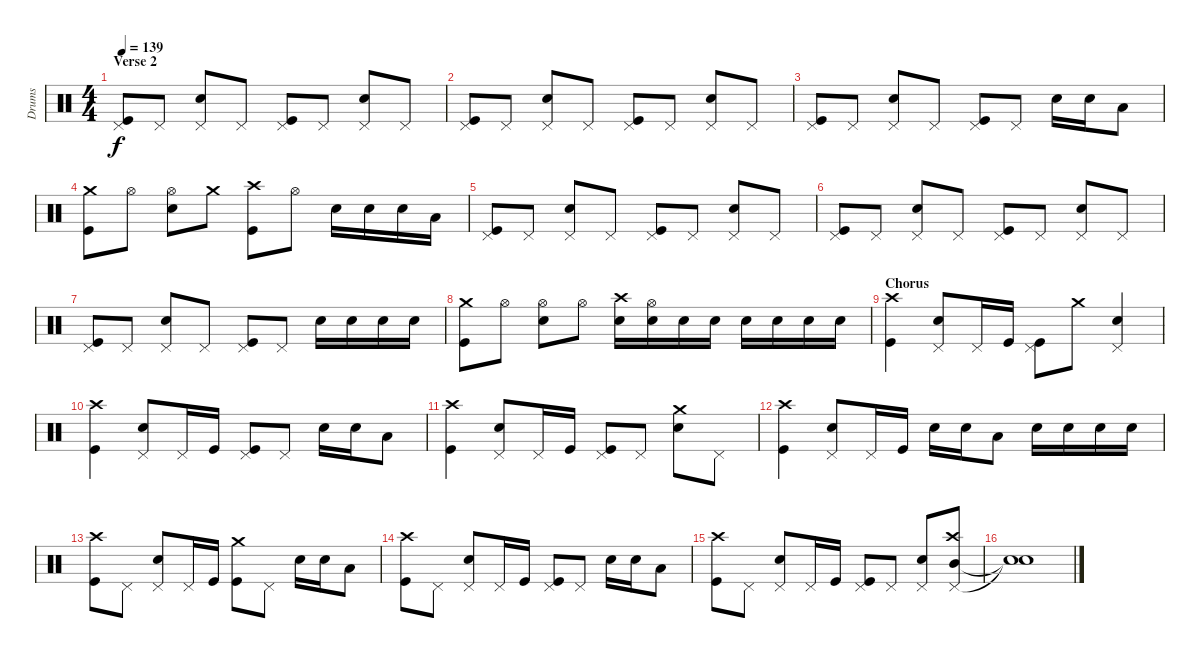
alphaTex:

\track ("Drums" "Drums") {instrument percussion}
\staff {score}
\articulation defaults
\ts (4 4)
\section ("" "Verse 2")
\tempo 139
\clef neutral
\ks c
("Pedal Hi-Hat (hit)" "Kick (hit)").8{dy f} "Pedal Hi-Hat (hit)".8 ("Pedal Hi-Hat (hit)" "Electric Snare (hit)").8 "Pedal Hi-Hat (hit)".8 ("Pedal Hi-Hat (hit)" "Kick (hit)").8 "Pedal Hi-Hat (hit)".8 ("Pedal Hi-Hat (hit)" "Electric Snare (hit)").8 "Pedal Hi-Hat (hit)".8 |
("Pedal Hi-Hat (hit)" "Kick (hit)").8 "Pedal Hi-Hat (hit)".8 ("Pedal Hi-Hat (hit)" "Electric Snare (hit)").8 "Pedal Hi-Hat (hit)".8 ("Pedal Hi-Hat (hit)" "Kick (hit)").8 "Pedal Hi-Hat (hit)".8 ("Pedal Hi-Hat (hit)" "Electric Snare (hit)").8 "Pedal Hi-Hat (hit)".8 |
("Pedal Hi-Hat (hit)" "Kick (hit)").8 "Pedal Hi-Hat (hit)".8 ("Pedal Hi-Hat (hit)" "Electric Snare (hit)").8 "Pedal Hi-Hat (hit)".8 ("Pedal Hi-Hat (hit)" "Kick (hit)").8 "Pedal Hi-Hat (hit)".8 "Electric Snare (hit)".16 "Electric Snare (hit)".16 "Low Tom (hit)".8 |
("Crash medium (hit)" "Kick (hit)").8 "Hi-Hat (open)".8 ("Hi-Hat (open)" "Electric Snare (hit)").8 "Crash medium (hit)".8 ("Crash high (hit)" "Kick (hit)").8 "Hi-Hat (open)".8 "Electric Snare (hit)".16 "Electric Snare (hit)".16 "Electric Snare (hit)".16 "Low Tom (hit)".16 |
("Pedal Hi-Hat (hit)" "Kick (hit)").8 "Pedal Hi-Hat (hit)".8 ("Pedal Hi-Hat (hit)" "Electric Snare (hit)").8 "Pedal Hi-Hat (hit)".8 ("Pedal Hi-Hat (hit)" "Kick (hit)").8 "Pedal Hi-Hat (hit)".8 ("Pedal Hi-Hat (hit)" "Electric Snare (hit)").8 "Pedal Hi-Hat (hit)".8 |
("Pedal Hi-Hat (hit)" "Kick (hit)").8 "Pedal Hi-Hat (hit)".8 ("Pedal Hi-Hat (hit)" "Electric Snare (hit)").8 "Pedal Hi-Hat (hit)".8 ("Pedal Hi-Hat (hit)" "Kick (hit)").8 "Pedal Hi-Hat (hit)".8 ("Pedal Hi-Hat (hit)" "Electric Snare (hit)").8 "Pedal Hi-Hat (hit)".8 |
("Pedal Hi-Hat (hit)" "Kick (hit)").8 "Pedal Hi-Hat (hit)".8 ("Pedal Hi-Hat (hit)" "Electric Snare (hit)").8 "Pedal Hi-Hat (hit)".8 ("Pedal Hi-Hat (hit)" "Kick (hit)").8 "Pedal Hi-Hat (hit)".8 "Electric Snare (hit)".16 "Electric Snare (hit)".16 "Electric Snare (hit)".16 "Electric Snare (hit)".16 |
("Crash medium (hit)" "Kick (hit)").8 "Hi-Hat (open)".8 ("Hi-Hat (open)" "Electric Snare (hit)").8 "Hi-Hat (open)".8 ("Crash high (hit)" "Electric Snare (hit)").16 ("Hi-Hat (open)" "Electric Snare (hit)").16 "Electric Snare (hit)".16 "Electric Snare (hit)".16 "Electric Snare (hit)".16 "Electric Snare (hit)".16 "Electric Snare (hit)".16 "Electric Snare (hit)".16 |
\section ("" "Chorus")
("Crash high (hit)" "Kick (hit)").4 ("Pedal Hi-Hat (hit)" "Electric Snare (hit)").8 "Pedal Hi-Hat (hit)".16 "Kick (hit)".16 ("Pedal Hi-Hat (hit)" "Kick (hit)").8 "Crash medium (hit)".8 ("Pedal Hi-Hat (hit)" "Electric Snare (hit)").4 |
("Crash high (hit)" "Kick (hit)").4 ("Pedal Hi-Hat (hit)" "Electric Snare (hit)").8 "Pedal Hi-Hat (hit)".16 "Kick (hit)".16 ("Pedal Hi-Hat (hit)" "Kick (hit)").8 "Pedal Hi-Hat (hit)".8 "Electric Snare (hit)".16 "Electric Snare (hit)".16 "Low Tom (hit)".8 |
("Crash high (hit)" "Kick (hit)").4 ("Pedal Hi-Hat (hit)" "Electric Snare (hit)").8 "Pedal Hi-Hat (hit)".16 "Kick (hit)".16 ("Pedal Hi-Hat (hit)" "Kick (hit)").8 "Pedal Hi-Hat (hit)".8 ("Crash medium (hit)" "Electric Snare (hit)").8 "Pedal Hi-Hat (hit)".8 |
("Crash high (hit)" "Kick (hit)").4 ("Pedal Hi-Hat (hit)" "Electric Snare (hit)").8 "Pedal Hi-Hat (hit)".16 "Kick (hit)".16 "Electric Snare (hit)".16 "Electric Snare (hit)".16 "Low Tom (hit)".8 "Electric Snare (hit)".16 "Electric Snare (hit)".16 "Electric Snare (hit)".16 "Electric Snare (hit)".16 |
("Crash high (hit)" "Kick (hit)").8 "Pedal Hi-Hat (hit)".8 ("Pedal Hi-Hat (hit)" "Electric Snare (hit)").8 "Pedal Hi-Hat (hit)".16 "Kick (hit)".16 ("Crash medium (hit)" "Kick (hit)").8 "Pedal Hi-Hat (hit)".8 "Electric Snare (hit)".16 "Electric Snare (hit)".16 "Low Tom (hit)".8 |
("Crash high (hit)" "Kick (hit)").8 "Pedal Hi-Hat (hit)".8 ("Pedal Hi-Hat (hit)" "Electric Snare (hit)").8 "Pedal Hi-Hat (hit)".16 "Kick (hit)".16 ("Pedal Hi-Hat (hit)" "Kick (hit)").8 "Pedal Hi-Hat (hit)".8 "Electric Snare (hit)".16 "Electric Snare (hit)".16 "Low Tom (hit)".8 |
("Crash high (hit)" "Kick (hit)").8 "Pedal Hi-Hat (hit)".8 ("Pedal Hi-Hat (hit)" "Electric Snare (hit)").8 "Pedal Hi-Hat (hit)".16 "Kick (hit)".16 ("Pedal Hi-Hat (hit)" "Kick (hit)").8 "Pedal Hi-Hat (hit)".8 ("Pedal Hi-Hat (hit)" "Electric Snare (hit)").8 ("Pedal Hi-Hat (hit)" "Mid Tom (hit)" "Crash high (hit)").8 |
("Snare (hit)"{t} "Snare (hit)"{t}).1
